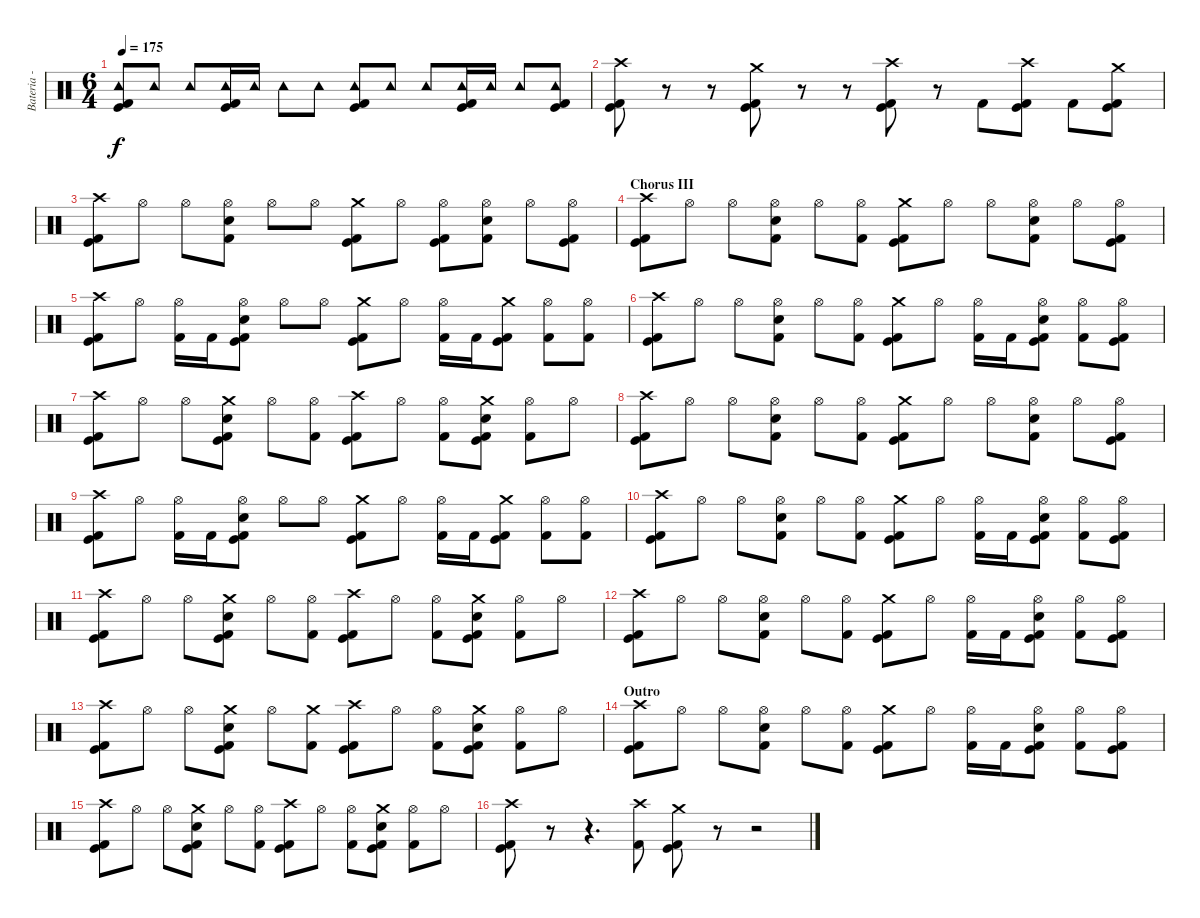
\track ("Bateria - Drums" "Bateria - ") {instrument percussion}
\staff {score}
\articulation defaults
\ts (6 4)
\tempo 175
\clef neutral
\ks c
("Tambourine (hit)" "Kick (hit)" "Kick (hit) 2").8{dy f} "Tambourine (hit)".8 "Tambourine (hit)".8 ("Tambourine (hit)" "Kick (hit)" "Kick (hit) 2").16 "Tambourine (hit)".16 "Tambourine (hit)".8 "Tambourine (hit)".8 ("Tambourine (hit)" "Kick (hit)" "Kick (hit) 2").8 "Tambourine (hit)".8 "Tambourine (hit)".8 ("Tambourine (hit)" "Kick (hit)" "Kick (hit) 2").16 "Tambourine (hit)".16 "Tambourine (hit)".8 ("Tambourine (hit)" "Kick (hit)" "Kick (hit) 2").8 |
("Crash high (hit)" "Kick (hit)" "Kick (hit) 2").8 r.8 r.8 ("Crash medium (hit)" "Kick (hit)" "Kick (hit) 2").8 r.8 r.8 ("Crash high (hit)" "Kick (hit)" "Kick (hit) 2").8 r.8 "Kick (hit) 2".8 ("Crash high (hit)" "Kick (hit)" "Kick (hit) 2").8 "Kick (hit) 2".8 ("Crash medium (hit)" "Kick (hit)" "Kick (hit) 2").8 |
("Crash high (hit)" "Kick (hit)" "Kick (hit) 2").8 "Hi-Hat (open)".8 "Hi-Hat (open)".8 ("Hi-Hat (open)" "Snare (hit) 2" "Kick (hit) 2").8 "Hi-Hat (open)".8 "Hi-Hat (open)".8 ("Crash medium (hit)" "Kick (hit)" "Kick (hit) 2").8 "Hi-Hat (open)".8 ("Hi-Hat (open)" "Kick (hit)" "Kick (hit) 2").8 ("Hi-Hat (open)" "Snare (hit) 2" "Kick (hit) 2").8 "Hi-Hat (open)".8 ("Hi-Hat (open)" "Kick (hit)" "Kick (hit) 2").8 |
\section ("" "Chorus III")
("Crash high (hit)" "Kick (hit)" "Kick (hit) 2").8 "Hi-Hat (open)".8 "Hi-Hat (open)".8 ("Hi-Hat (open)" "Snare (hit) 2" "Kick (hit) 2").8 "Hi-Hat (open)".8 ("Hi-Hat (open)" "Kick (hit) 2").8 ("Crash medium (hit)" "Kick (hit)" "Kick (hit) 2").8 "Hi-Hat (open)".8 "Hi-Hat (open)".8 ("Hi-Hat (open)" "Snare (hit) 2" "Kick (hit) 2").8 "Hi-Hat (open)".8 ("Hi-Hat (open)" "Kick (hit)" "Kick (hit) 2").8 |
("Crash high (hit)" "Kick (hit)" "Kick (hit) 2").8 "Hi-Hat (open)".8 ("Hi-Hat (open)" "Kick (hit) 2").16 "Kick (hit) 2".16 ("Hi-Hat (open)" "Snare (hit) 2" "Kick (hit)" "Kick (hit) 2").8 "Hi-Hat (open)".8 "Hi-Hat (open)".8 ("Crash medium (hit)" "Kick (hit)" "Kick (hit) 2").8 "Hi-Hat (open)".8 ("Hi-Hat (open)" "Kick (hit) 2").16 "Kick (hit) 2".16 ("Crash medium (hit)" "Kick (hit)" "Kick (hit) 2").8 ("Hi-Hat (open)" "Kick (hit) 2").8 ("Hi-Hat (open)" "Kick (hit) 2").8 |
("Crash high (hit)" "Kick (hit)" "Kick (hit) 2").8 "Hi-Hat (open)".8 "Hi-Hat (open)".8 ("Hi-Hat (open)" "Snare (hit) 2" "Kick (hit) 2").8 "Hi-Hat (open)".8 ("Hi-Hat (open)" "Kick (hit) 2").8 ("Crash medium (hit)" "Kick (hit)" "Kick (hit) 2").8 "Hi-Hat (open)".8 ("Hi-Hat (open)" "Kick (hit) 2").16 "Kick (hit) 2".16 ("Hi-Hat (open)" "Snare (hit) 2" "Kick (hit)" "Kick (hit) 2").8 ("Hi-Hat (open)" "Kick (hit) 2").8 ("Hi-Hat (open)" "Kick (hit)" "Kick (hit) 2").8 |
("Crash high (hit)" "Kick (hit)" "Kick (hit) 2").8 "Hi-Hat (open)".8 "Hi-Hat (open)".8 ("Crash medium (hit)" "Snare (hit) 2" "Kick (hit)" "Kick (hit) 2").8 "Hi-Hat (open)".8 ("Hi-Hat (open)" "Kick (hit) 2").8 ("Crash high (hit)" "Kick (hit)" "Kick (hit) 2").8 "Hi-Hat (open)".8 ("Hi-Hat (open)" "Kick (hit) 2").8 ("Crash medium (hit)" "Snare (hit) 2" "Kick (hit)" "Kick (hit) 2").8 ("Hi-Hat (open)" "Kick (hit) 2").8 "Hi-Hat (open)".8 |
("Crash high (hit)" "Kick (hit)" "Kick (hit) 2").8 "Hi-Hat (open)".8 "Hi-Hat (open)".8 ("Hi-Hat (open)" "Snare (hit) 2" "Kick (hit) 2").8 "Hi-Hat (open)".8 ("Hi-Hat (open)" "Kick (hit) 2").8 ("Crash medium (hit)" "Kick (hit)" "Kick (hit) 2").8 "Hi-Hat (open)".8 "Hi-Hat (open)".8 ("Hi-Hat (open)" "Snare (hit) 2" "Kick (hit) 2").8 "Hi-Hat (open)".8 ("Hi-Hat (open)" "Kick (hit)" "Kick (hit) 2").8 |
("Crash high (hit)" "Kick (hit)" "Kick (hit) 2").8 "Hi-Hat (open)".8 ("Hi-Hat (open)" "Kick (hit) 2").16 "Kick (hit) 2".16 ("Hi-Hat (open)" "Snare (hit) 2" "Kick (hit)" "Kick (hit) 2").8 "Hi-Hat (open)".8 "Hi-Hat (open)".8 ("Crash medium (hit)" "Kick (hit)" "Kick (hit) 2").8 "Hi-Hat (open)".8 ("Hi-Hat (open)" "Kick (hit) 2").16 "Kick (hit) 2".16 ("Crash medium (hit)" "Kick (hit)" "Kick (hit) 2").8 ("Hi-Hat (open)" "Kick (hit) 2").8 ("Hi-Hat (open)" "Kick (hit) 2").8 |
("Crash high (hit)" "Kick (hit)" "Kick (hit) 2").8 "Hi-Hat (open)".8 "Hi-Hat (open)".8 ("Hi-Hat (open)" "Snare (hit) 2" "Kick (hit) 2").8 "Hi-Hat (open)".8 ("Hi-Hat (open)" "Kick (hit) 2").8 ("Crash medium (hit)" "Kick (hit)" "Kick (hit) 2").8 "Hi-Hat (open)".8 ("Hi-Hat (open)" "Kick (hit) 2").16 "Kick (hit) 2".16 ("Hi-Hat (open)" "Snare (hit) 2" "Kick (hit)" "Kick (hit) 2").8 ("Hi-Hat (open)" "Kick (hit) 2").8 ("Hi-Hat (open)" "Kick (hit)" "Kick (hit) 2").8 |
("Crash high (hit)" "Kick (hit)" "Kick (hit) 2").8 "Hi-Hat (open)".8 "Hi-Hat (open)".8 ("Crash medium (hit)" "Snare (hit) 2" "Kick (hit)" "Kick (hit) 2").8 "Hi-Hat (open)".8 ("Hi-Hat (open)" "Kick (hit) 2").8 ("Crash high (hit)" "Kick (hit)" "Kick (hit) 2").8 "Hi-Hat (open)".8 ("Hi-Hat (open)" "Kick (hit) 2").8 ("Crash medium (hit)" "Snare (hit) 2" "Kick (hit)" "Kick (hit) 2").8 ("Hi-Hat (open)" "Kick (hit) 2").8 "Hi-Hat (open)".8 |
("Crash high (hit)" "Kick (hit)" "Kick (hit) 2").8 "Hi-Hat (open)".8 "Hi-Hat (open)".8 ("Hi-Hat (open)" "Snare (hit) 2" "Kick (hit) 2").8 "Hi-Hat (open)".8 ("Hi-Hat (open)" "Kick (hit) 2").8 ("Crash medium (hit)" "Kick (hit)" "Kick (hit) 2").8 "Hi-Hat (open)".8 ("Hi-Hat (open)" "Kick (hit) 2").16 "Kick (hit) 2".16 ("Hi-Hat (open)" "Snare (hit) 2" "Kick (hit)" "Kick (hit) 2").8 ("Hi-Hat (open)" "Kick (hit) 2").8 ("Hi-Hat (open)" "Kick (hit)" "Kick (hit) 2").8 |
("Crash high (hit)" "Kick (hit)" "Kick (hit) 2").8 "Hi-Hat (open)".8 "Hi-Hat (open)".8 ("Crash medium (hit)" "Snare (hit) 2" "Kick (hit)" "Kick (hit) 2").8 "Hi-Hat (open)".8 ("Crash medium (hit)" "Kick (hit) 2").8 ("Crash high (hit)" "Kick (hit)" "Kick (hit) 2").8 "Hi-Hat (open)".8 ("Hi-Hat (open)" "Kick (hit) 2").8 ("Crash medium (hit)" "Snare (hit) 2" "Kick (hit)" "Kick (hit) 2").8 ("Hi-Hat (open)" "Kick (hit) 2").8 "Hi-Hat (open)".8 |
\section ("" "Outro")
("Crash high (hit)" "Kick (hit)" "Kick (hit) 2").8 "Hi-Hat (open)".8 "Hi-Hat (open)".8 ("Hi-Hat (open)" "Snare (hit) 2" "Kick (hit) 2").8 "Hi-Hat (open)".8 ("Hi-Hat (open)" "Kick (hit) 2").8 ("Crash medium (hit)" "Kick (hit)" "Kick (hit) 2").8 "Hi-Hat (open)".8 ("Hi-Hat (open)" "Kick (hit) 2").16 "Kick (hit) 2".16 ("Hi-Hat (open)" "Snare (hit) 2" "Kick (hit)" "Kick (hit) 2").8 ("Hi-Hat (open)" "Kick (hit) 2").8 ("Hi-Hat (open)" "Kick (hit)" "Kick (hit) 2").8 |
("Crash high (hit)" "Kick (hit)" "Kick (hit) 2").8 "Hi-Hat (open)".8 "Hi-Hat (open)".8 ("Crash medium (hit)" "Snare (hit) 2" "Kick (hit)" "Kick (hit) 2").8 "Hi-Hat (open)".8 ("Hi-Hat (open)" "Kick (hit) 2").8 ("Crash high (hit)" "Kick (hit)" "Kick (hit) 2").8 "Hi-Hat (open)".8 ("Hi-Hat (open)" "Kick (hit) 2").8 ("Crash medium (hit)" "Snare (hit) 2" "Kick (hit)" "Kick (hit) 2").8 ("Hi-Hat (open)" "Kick (hit) 2").8 "Hi-Hat (open)".8 |
("Crash high (hit)" "Kick (hit)" "Kick (hit) 2").8 r.8 r.4{d} ("Crash high (hit)" "Kick (hit) 2").8 ("Crash medium (hit)" "Kick (hit)" "Kick (hit) 2").8 r.8 r.2
